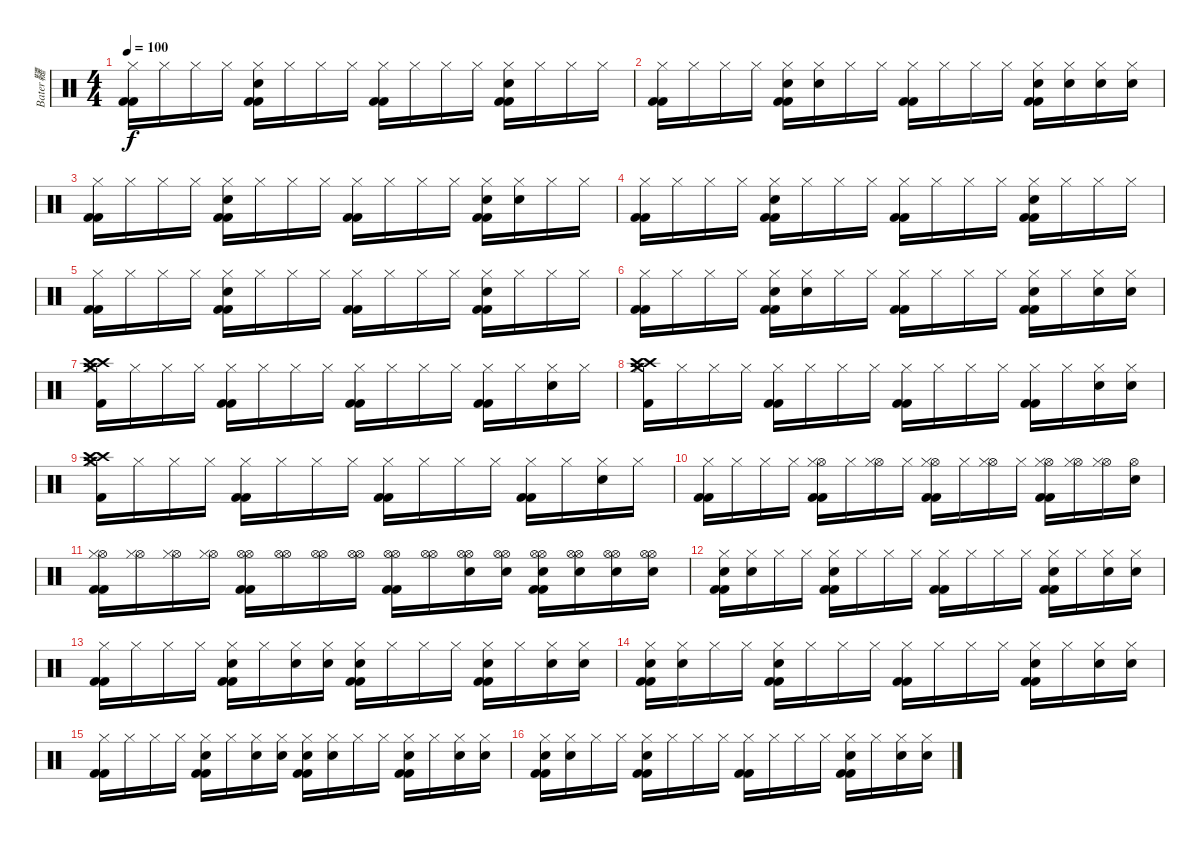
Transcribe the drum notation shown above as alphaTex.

\track ("Bater韆" "Bater韆") {instrument percussion}
\staff {score}
\articulation defaults
\ts (4 4)
\tempo 100
\clef neutral
\ks c
("Kick (hit) 2" "Kick (hit) 2" "Hi-Hat (closed)").16{dy f} "Hi-Hat (closed)".16 "Hi-Hat (closed)".16 "Hi-Hat (closed)".16 ("Kick (hit) 2" "Kick (hit) 2" "Electric Snare (hit)" "Hi-Hat (closed)").16 "Hi-Hat (closed)".16 "Hi-Hat (closed)".16 "Hi-Hat (closed)".16 ("Kick (hit) 2" "Kick (hit) 2" "Hi-Hat (closed)").16 "Hi-Hat (closed)".16 "Hi-Hat (closed)".16 "Hi-Hat (closed)".16 ("Kick (hit) 2" "Kick (hit) 2" "Electric Snare (hit)" "Hi-Hat (closed)").16 "Hi-Hat (closed)".16 "Hi-Hat (closed)".16 "Hi-Hat (closed)".16 |
("Kick (hit) 2" "Kick (hit) 2" "Hi-Hat (closed)").16 "Hi-Hat (closed)".16 "Hi-Hat (closed)".16 "Hi-Hat (closed)".16 ("Kick (hit) 2" "Kick (hit) 2" "Electric Snare (hit)" "Hi-Hat (closed)").16 ("Electric Snare (hit)" "Hi-Hat (closed)").16 "Hi-Hat (closed)".16 "Hi-Hat (closed)".16 ("Kick (hit) 2" "Kick (hit) 2" "Hi-Hat (closed)").16 "Hi-Hat (closed)".16 "Hi-Hat (closed)".16 "Hi-Hat (closed)".16 ("Kick (hit) 2" "Kick (hit) 2" "Electric Snare (hit)" "Hi-Hat (closed)").16 ("Electric Snare (hit)" "Hi-Hat (closed)").16 ("Electric Snare (hit)" "Hi-Hat (closed)").16 ("Electric Snare (hit)" "Hi-Hat (closed)").16 |
("Kick (hit) 2" "Kick (hit) 2" "Hi-Hat (closed)").16 "Hi-Hat (closed)".16 "Hi-Hat (closed)".16 "Hi-Hat (closed)".16 ("Kick (hit) 2" "Kick (hit) 2" "Electric Snare (hit)" "Hi-Hat (closed)").16 "Hi-Hat (closed)".16 "Hi-Hat (closed)".16 "Hi-Hat (closed)".16 ("Kick (hit) 2" "Kick (hit) 2" "Hi-Hat (closed)").16 "Hi-Hat (closed)".16 "Hi-Hat (closed)".16 "Hi-Hat (closed)".16 ("Kick (hit) 2" "Kick (hit) 2" "Electric Snare (hit)" "Hi-Hat (closed)").16 ("Electric Snare (hit)" "Hi-Hat (closed)").16 "Hi-Hat (closed)".16 "Hi-Hat (closed)".16 |
("Kick (hit) 2" "Kick (hit) 2" "Hi-Hat (closed)").16 "Hi-Hat (closed)".16 "Hi-Hat (closed)".16 "Hi-Hat (closed)".16 ("Kick (hit) 2" "Kick (hit) 2" "Electric Snare (hit)" "Hi-Hat (closed)").16 "Hi-Hat (closed)".16 "Hi-Hat (closed)".16 "Hi-Hat (closed)".16 ("Kick (hit) 2" "Kick (hit) 2" "Hi-Hat (closed)").16 "Hi-Hat (closed)".16 "Hi-Hat (closed)".16 "Hi-Hat (closed)".16 ("Kick (hit) 2" "Kick (hit) 2" "Electric Snare (hit)" "Hi-Hat (closed)").16 "Hi-Hat (closed)".16 "Hi-Hat (closed)".16 "Hi-Hat (closed)".16 |
("Kick (hit) 2" "Kick (hit) 2" "Hi-Hat (closed)").16 "Hi-Hat (closed)".16 "Hi-Hat (closed)".16 "Hi-Hat (closed)".16 ("Kick (hit) 2" "Kick (hit) 2" "Electric Snare (hit)" "Hi-Hat (closed)").16 "Hi-Hat (closed)".16 "Hi-Hat (closed)".16 "Hi-Hat (closed)".16 ("Kick (hit) 2" "Kick (hit) 2" "Hi-Hat (closed)").16 "Hi-Hat (closed)".16 "Hi-Hat (closed)".16 "Hi-Hat (closed)".16 ("Kick (hit) 2" "Kick (hit) 2" "Electric Snare (hit)" "Hi-Hat (closed)").16 "Hi-Hat (closed)".16 "Hi-Hat (closed)".16 "Hi-Hat (closed)".16 |
("Kick (hit) 2" "Kick (hit) 2" "Hi-Hat (closed)").16 "Hi-Hat (closed)".16 "Hi-Hat (closed)".16 "Hi-Hat (closed)".16 ("Kick (hit) 2" "Kick (hit) 2" "Electric Snare (hit)" "Hi-Hat (closed)").16 ("Electric Snare (hit)" "Hi-Hat (closed)").16 "Hi-Hat (closed)".16 "Hi-Hat (closed)".16 ("Kick (hit) 2" "Kick (hit) 2" "Hi-Hat (closed)").16 "Hi-Hat (closed)".16 "Hi-Hat (closed)".16 "Hi-Hat (closed)".16 ("Kick (hit) 2" "Kick (hit) 2" "Electric Snare (hit)" "Hi-Hat (closed)").16 "Hi-Hat (closed)".16 ("Electric Snare (hit)" "Hi-Hat (closed)").16 ("Electric Snare (hit)" "Hi-Hat (closed)").16 |
("Crash high (hit)" "Crash high (hit)" "Crash medium (hit)" "Kick (hit) 2" "Hi-Hat (closed)").16 "Hi-Hat (closed)".16 "Hi-Hat (closed)".16 "Hi-Hat (closed)".16 ("Kick (hit) 2" "Kick (hit) 2" "Hi-Hat (closed)").16 "Hi-Hat (closed)".16 "Hi-Hat (closed)".16 "Hi-Hat (closed)".16 ("Kick (hit) 2" "Kick (hit) 2" "Hi-Hat (closed)").16 "Hi-Hat (closed)".16 "Hi-Hat (closed)".16 "Hi-Hat (closed)".16 ("Kick (hit) 2" "Kick (hit) 2" "Hi-Hat (closed)").16 "Hi-Hat (closed)".16 ("Electric Snare (hit)" "Hi-Hat (closed)").16 "Hi-Hat (closed)".16 |
("Crash high (hit)" "Crash high (hit)" "Crash medium (hit)" "Kick (hit) 2" "Hi-Hat (closed)").16 "Hi-Hat (closed)".16 "Hi-Hat (closed)".16 "Hi-Hat (closed)".16 ("Kick (hit) 2" "Kick (hit) 2" "Hi-Hat (closed)").16 "Hi-Hat (closed)".16 "Hi-Hat (closed)".16 "Hi-Hat (closed)".16 ("Kick (hit) 2" "Kick (hit) 2" "Hi-Hat (closed)").16 "Hi-Hat (closed)".16 "Hi-Hat (closed)".16 "Hi-Hat (closed)".16 ("Kick (hit) 2" "Kick (hit) 2" "Hi-Hat (closed)").16 "Hi-Hat (closed)".16 ("Electric Snare (hit)" "Hi-Hat (closed)").16 ("Electric Snare (hit)" "Hi-Hat (closed)").16 |
("Crash high (hit)" "Crash high (hit)" "Crash medium (hit)" "Kick (hit) 2" "Hi-Hat (closed)").16 "Hi-Hat (closed)".16 "Hi-Hat (closed)".16 "Hi-Hat (closed)".16 ("Kick (hit) 2" "Kick (hit) 2" "Hi-Hat (closed)").16 "Hi-Hat (closed)".16 "Hi-Hat (closed)".16 "Hi-Hat (closed)".16 ("Kick (hit) 2" "Kick (hit) 2" "Hi-Hat (closed)").16 "Hi-Hat (closed)".16 "Hi-Hat (closed)".16 "Hi-Hat (closed)".16 ("Kick (hit) 2" "Kick (hit) 2" "Hi-Hat (closed)").16 "Hi-Hat (closed)".16 ("Electric Snare (hit)" "Hi-Hat (closed)").16 "Hi-Hat (closed)".16 |
("Kick (hit) 2" "Kick (hit) 2" "Hi-Hat (closed)").16 "Hi-Hat (closed)".16 "Hi-Hat (closed)".16 "Hi-Hat (closed)".16 ("Kick (hit) 2" "Kick (hit) 2" "Hi-Hat (open)" "Hi-Hat (closed)").16 "Hi-Hat (closed)".16 ("Hi-Hat (open)" "Hi-Hat (closed)").16 "Hi-Hat (closed)".16 ("Kick (hit) 2" "Kick (hit) 2" "Hi-Hat (open)" "Hi-Hat (closed)").16 "Hi-Hat (closed)".16 ("Hi-Hat (open)" "Hi-Hat (closed)").16 "Hi-Hat (closed)".16 ("Kick (hit) 2" "Kick (hit) 2" "Hi-Hat (open)" "Hi-Hat (closed)").16 ("Hi-Hat (open)" "Hi-Hat (closed)").16 ("Hi-Hat (open)" "Hi-Hat (closed)").16 ("Hi-Hat (open)" "Snare (hit)").16 |
("Kick (hit) 2" "Kick (hit) 2" "Hi-Hat (open)" "Hi-Hat (closed)").16 ("Hi-Hat (open)" "Hi-Hat (closed)").16 ("Hi-Hat (open)" "Hi-Hat (closed)").16 ("Hi-Hat (open)" "Hi-Hat (closed)").16 ("Kick (hit) 2" "Kick (hit) 2" "Hi-Hat (open)" "Hi-Hat (open)").16 ("Hi-Hat (open)" "Hi-Hat (open)").16 ("Hi-Hat (open)" "Hi-Hat (open)").16 ("Hi-Hat (open)" "Hi-Hat (open)").16 ("Kick (hit) 2" "Kick (hit) 2" "Hi-Hat (open)" "Hi-Hat (open)").16 ("Hi-Hat (open)" "Hi-Hat (open)").16 ("Electric Snare (hit)" "Hi-Hat (open)" "Hi-Hat (open)").16 ("Electric Snare (hit)" "Hi-Hat (open)" "Hi-Hat (open)").16 ("Kick (hit) 2" "Kick (hit) 2" "Electric Snare (hit)" "Hi-Hat (open)" "Hi-Hat (open)").16 ("Electric Snare (hit)" "Hi-Hat (open)" "Hi-Hat (open)").16 ("Electric Snare (hit)" "Hi-Hat (open)" "Hi-Hat (open)").16 ("Electric Snare (hit)" "Hi-Hat (open)" "Hi-Hat (open)").16 |
("Kick (hit) 2" "Kick (hit) 2" "Electric Snare (hit)" "Hi-Hat (closed)").16 ("Electric Snare (hit)" "Hi-Hat (closed)").16 "Hi-Hat (closed)".16 "Hi-Hat (closed)".16 ("Kick (hit) 2" "Kick (hit) 2" "Electric Snare (hit)" "Hi-Hat (closed)").16 "Hi-Hat (closed)".16 "Hi-Hat (closed)".16 "Hi-Hat (closed)".16 ("Kick (hit) 2" "Kick (hit) 2" "Hi-Hat (closed)").16 "Hi-Hat (closed)".16 "Hi-Hat (closed)".16 "Hi-Hat (closed)".16 ("Kick (hit) 2" "Kick (hit) 2" "Electric Snare (hit)" "Hi-Hat (closed)").16 "Hi-Hat (closed)".16 ("Electric Snare (hit)" "Hi-Hat (closed)").16 ("Electric Snare (hit)" "Hi-Hat (closed)").16 |
("Kick (hit) 2" "Kick (hit) 2" "Hi-Hat (closed)").16 "Hi-Hat (closed)".16 "Hi-Hat (closed)".16 "Hi-Hat (closed)".16 ("Kick (hit) 2" "Kick (hit) 2" "Electric Snare (hit)" "Hi-Hat (closed)").16 "Hi-Hat (closed)".16 ("Electric Snare (hit)" "Hi-Hat (closed)").16 ("Electric Snare (hit)" "Hi-Hat (closed)").16 ("Kick (hit) 2" "Kick (hit) 2" "Electric Snare (hit)" "Hi-Hat (closed)").16 "Hi-Hat (closed)".16 "Hi-Hat (closed)".16 "Hi-Hat (closed)".16 ("Kick (hit) 2" "Kick (hit) 2" "Electric Snare (hit)" "Hi-Hat (closed)").16 "Hi-Hat (closed)".16 ("Electric Snare (hit)" "Hi-Hat (closed)").16 ("Electric Snare (hit)" "Hi-Hat (closed)").16 |
("Kick (hit) 2" "Kick (hit) 2" "Electric Snare (hit)" "Hi-Hat (closed)").16 ("Electric Snare (hit)" "Hi-Hat (closed)").16 "Hi-Hat (closed)".16 "Hi-Hat (closed)".16 ("Kick (hit) 2" "Kick (hit) 2" "Electric Snare (hit)" "Hi-Hat (closed)").16 "Hi-Hat (closed)".16 "Hi-Hat (closed)".16 "Hi-Hat (closed)".16 ("Kick (hit) 2" "Kick (hit) 2" "Hi-Hat (closed)").16 "Hi-Hat (closed)".16 "Hi-Hat (closed)".16 "Hi-Hat (closed)".16 ("Kick (hit) 2" "Kick (hit) 2" "Electric Snare (hit)" "Hi-Hat (closed)").16 "Hi-Hat (closed)".16 ("Electric Snare (hit)" "Hi-Hat (closed)").16 ("Electric Snare (hit)" "Hi-Hat (closed)").16 |
("Kick (hit) 2" "Kick (hit) 2" "Hi-Hat (closed)").16 "Hi-Hat (closed)".16 "Hi-Hat (closed)".16 "Hi-Hat (closed)".16 ("Kick (hit) 2" "Kick (hit) 2" "Electric Snare (hit)" "Hi-Hat (closed)").16 "Hi-Hat (closed)".16 ("Electric Snare (hit)" "Hi-Hat (closed)").16 ("Electric Snare (hit)" "Hi-Hat (closed)").16 ("Kick (hit) 2" "Kick (hit) 2" "Electric Snare (hit)" "Hi-Hat (closed)").16 ("Electric Snare (hit)" "Hi-Hat (closed)").16 "Hi-Hat (closed)".16 "Hi-Hat (closed)".16 ("Kick (hit) 2" "Kick (hit) 2" "Electric Snare (hit)" "Hi-Hat (closed)").16 "Hi-Hat (closed)".16 ("Electric Snare (hit)" "Hi-Hat (closed)").16 ("Electric Snare (hit)" "Hi-Hat (closed)").16 |
("Kick (hit) 2" "Kick (hit) 2" "Electric Snare (hit)" "Hi-Hat (closed)").16 ("Electric Snare (hit)" "Hi-Hat (closed)").16 "Hi-Hat (closed)".16 "Hi-Hat (closed)".16 ("Kick (hit) 2" "Kick (hit) 2" "Electric Snare (hit)" "Hi-Hat (closed)").16 "Hi-Hat (closed)".16 "Hi-Hat (closed)".16 "Hi-Hat (closed)".16 ("Kick (hit) 2" "Kick (hit) 2" "Hi-Hat (closed)").16 "Hi-Hat (closed)".16 "Hi-Hat (closed)".16 "Hi-Hat (closed)".16 ("Kick (hit) 2" "Kick (hit) 2" "Electric Snare (hit)" "Hi-Hat (closed)").16 "Hi-Hat (closed)".16 ("Electric Snare (hit)" "Hi-Hat (closed)").16 ("Electric Snare (hit)" "Hi-Hat (closed)").16
